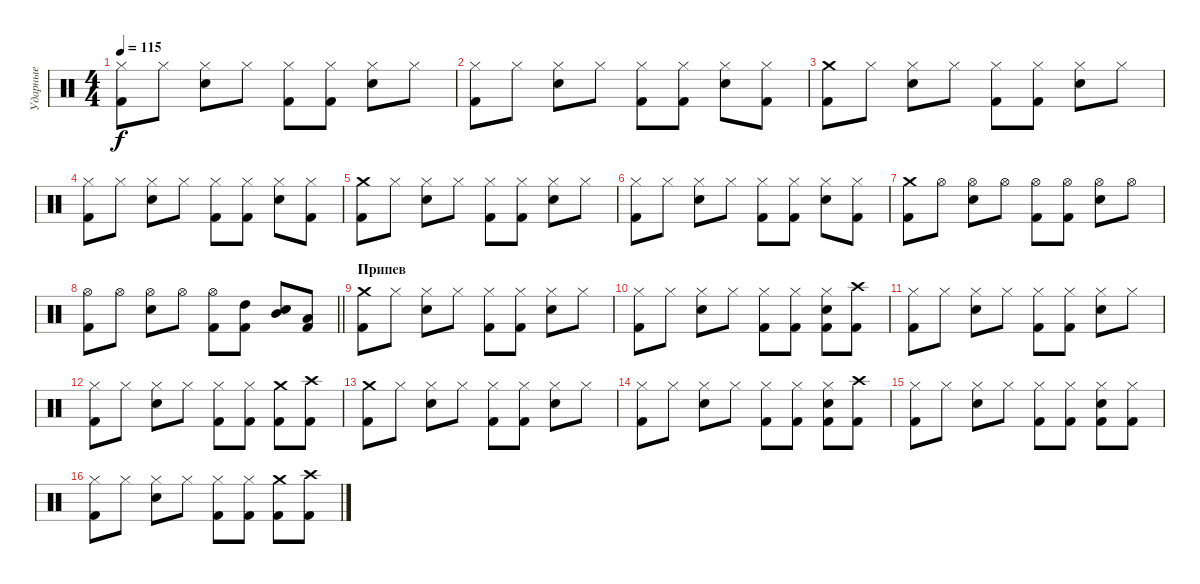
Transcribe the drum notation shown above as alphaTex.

\track ("Ударные" "Ударные") {instrument percussion}
\staff {score}
\articulation defaults
\ts (4 4)
\tempo 115
\clef neutral
\ks c
("Kick (hit) 2" "Hi-Hat (closed)").8{dy f} "Hi-Hat (closed)".8 ("Snare (hit) 2" "Hi-Hat (closed)").8 "Hi-Hat (closed)".8 ("Kick (hit) 2" "Hi-Hat (closed)").8 ("Kick (hit) 2" "Hi-Hat (closed)").8 ("Snare (hit) 2" "Hi-Hat (closed)").8 "Hi-Hat (closed)".8 |
("Kick (hit) 2" "Hi-Hat (closed)").8 "Hi-Hat (closed)".8 ("Snare (hit) 2" "Hi-Hat (closed)").8 "Hi-Hat (closed)".8 ("Kick (hit) 2" "Hi-Hat (closed)").8 ("Kick (hit) 2" "Hi-Hat (closed)").8 ("Snare (hit) 2" "Hi-Hat (closed)").8 ("Kick (hit) 2" "Hi-Hat (closed)").8 |
("Kick (hit) 2" "Crash medium (hit)").8 "Hi-Hat (closed)".8 ("Snare (hit) 2" "Hi-Hat (closed)").8 "Hi-Hat (closed)".8 ("Kick (hit) 2" "Hi-Hat (closed)").8 ("Kick (hit) 2" "Hi-Hat (closed)").8 ("Snare (hit) 2" "Hi-Hat (closed)").8 "Hi-Hat (closed)".8 |
("Kick (hit) 2" "Hi-Hat (closed)").8 "Hi-Hat (closed)".8 ("Snare (hit) 2" "Hi-Hat (closed)").8 "Hi-Hat (closed)".8 ("Kick (hit) 2" "Hi-Hat (closed)").8 ("Kick (hit) 2" "Hi-Hat (closed)").8 ("Snare (hit) 2" "Hi-Hat (closed)").8 ("Kick (hit) 2" "Hi-Hat (closed)").8 |
("Kick (hit) 2" "Crash medium (hit)").8 "Hi-Hat (closed)".8 ("Snare (hit) 2" "Hi-Hat (closed)").8 "Hi-Hat (closed)".8 ("Kick (hit) 2" "Hi-Hat (closed)").8 ("Kick (hit) 2" "Hi-Hat (closed)").8 ("Snare (hit) 2" "Hi-Hat (closed)").8 "Hi-Hat (closed)".8 |
("Kick (hit) 2" "Hi-Hat (closed)").8 "Hi-Hat (closed)".8 ("Snare (hit) 2" "Hi-Hat (closed)").8 "Hi-Hat (closed)".8 ("Kick (hit) 2" "Hi-Hat (closed)").8 ("Kick (hit) 2" "Hi-Hat (closed)").8 ("Snare (hit) 2" "Hi-Hat (closed)").8 ("Kick (hit) 2" "Hi-Hat (closed)").8 |
("Kick (hit) 2" "Crash medium (hit)").8 "Hi-Hat (open)".8 ("Snare (hit) 2" "Hi-Hat (open)").8 "Hi-Hat (open)".8 ("Kick (hit) 2" "Hi-Hat (open)").8 ("Kick (hit) 2" "Hi-Hat (open)").8 ("Snare (hit) 2" "Hi-Hat (open)").8 "Hi-Hat (open)".8 |
\barLineRight lightlight
("Kick (hit) 2" "Hi-Hat (open)").8 "Hi-Hat (open)".8 ("Snare (hit) 2" "Hi-Hat (open)").8 "Hi-Hat (open)".8 ("Kick (hit) 2" "Hi-Hat (open)").8 ("Kick (hit) 2" "High Tom (hit)").8 ("Snare (hit) 2" "Mid Tom (hit)").8 ("Kick (hit) 2" "Low Tom (hit)").8 |
\section ("" "Припев")
("Kick (hit) 2" "Crash medium (hit)").8 "Hi-Hat (closed)".8 ("Snare (hit) 2" "Hi-Hat (closed)").8 "Hi-Hat (closed)".8 ("Kick (hit) 2" "Hi-Hat (closed)").8 ("Kick (hit) 2" "Hi-Hat (closed)").8 ("Snare (hit) 2" "Hi-Hat (closed)").8 "Hi-Hat (closed)".8 |
("Kick (hit) 2" "Hi-Hat (closed)").8 "Hi-Hat (closed)".8 ("Snare (hit) 2" "Hi-Hat (closed)").8 "Hi-Hat (closed)".8 ("Kick (hit) 2" "Hi-Hat (closed)").8 ("Kick (hit) 2" "Hi-Hat (closed)").8 ("Kick (hit) 2" "Snare (hit) 2" "Hi-Hat (closed)").8 ("Kick (hit) 2" "Crash high (hit)").8 |
("Kick (hit) 2" "Hi-Hat (closed)").8 "Hi-Hat (closed)".8 ("Snare (hit) 2" "Hi-Hat (closed)").8 "Hi-Hat (closed)".8 ("Kick (hit) 2" "Hi-Hat (closed)").8 ("Kick (hit) 2" "Hi-Hat (closed)").8 ("Snare (hit) 2" "Hi-Hat (closed)").8 "Hi-Hat (closed)".8 |
("Kick (hit) 2" "Hi-Hat (closed)").8 "Hi-Hat (closed)".8 ("Snare (hit) 2" "Hi-Hat (closed)").8 "Hi-Hat (closed)".8 ("Kick (hit) 2" "Hi-Hat (closed)").8 ("Kick (hit) 2" "Hi-Hat (closed)").8 ("Kick (hit) 2" "Crash medium (hit)").8 ("Kick (hit) 2" "Crash high (hit)").8 |
("Kick (hit) 2" "Crash medium (hit)").8 "Hi-Hat (closed)".8 ("Snare (hit) 2" "Hi-Hat (closed)").8 "Hi-Hat (closed)".8 ("Kick (hit) 2" "Hi-Hat (closed)").8 ("Kick (hit) 2" "Hi-Hat (closed)").8 ("Snare (hit) 2" "Hi-Hat (closed)").8 "Hi-Hat (closed)".8 |
("Kick (hit) 2" "Hi-Hat (closed)").8 "Hi-Hat (closed)".8 ("Snare (hit) 2" "Hi-Hat (closed)").8 "Hi-Hat (closed)".8 ("Kick (hit) 2" "Hi-Hat (closed)").8 ("Kick (hit) 2" "Hi-Hat (closed)").8 ("Kick (hit) 2" "Snare (hit) 2" "Hi-Hat (closed)").8 ("Kick (hit) 2" "Crash high (hit)").8 |
("Kick (hit) 2" "Hi-Hat (closed)").8 "Hi-Hat (closed)".8 ("Snare (hit) 2" "Hi-Hat (closed)").8 "Hi-Hat (closed)".8 ("Kick (hit) 2" "Hi-Hat (closed)").8 ("Kick (hit) 2" "Hi-Hat (closed)").8 ("Kick (hit) 2" "Snare (hit) 2" "Hi-Hat (closed)").8 ("Kick (hit) 2" "Hi-Hat (closed)").8 |
("Kick (hit) 2" "Hi-Hat (closed)").8 "Hi-Hat (closed)".8 ("Snare (hit) 2" "Hi-Hat (closed)").8 "Hi-Hat (closed)".8 ("Kick (hit) 2" "Hi-Hat (closed)").8 ("Kick (hit) 2" "Hi-Hat (closed)").8 ("Kick (hit) 2" "Crash medium (hit)").8 ("Kick (hit) 2" "Crash high (hit)").8
